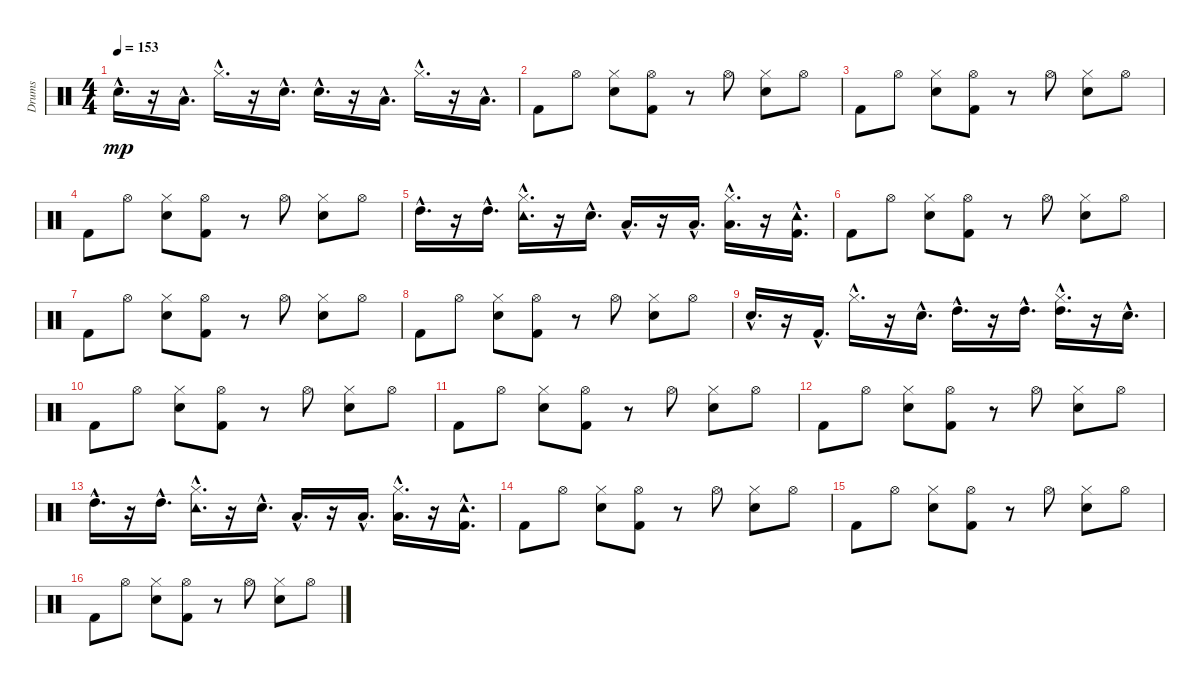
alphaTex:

\track ("Drums" "Drums") {instrument percussion}
\staff {score}
\articulation defaults
\ts (4 4)
\tempo 153
\clef neutral
\ks c "Snare (hit) 2"{hac}.16{d dy mp}
r.16 "Low Floor Tom (hit)"{hac}.16{d} "Hi-Hat (closed)"{hac}.16{d} r.16 "Snare (hit) 2"{hac}.16{d} "Snare (hit) 2"{hac}.16{d} r.16 "Low Floor Tom (hit)"{hac}.16{d} "Hi-Hat (closed)"{hac}.16{d} r.16 "Low Floor Tom (hit)"{hac}.16{d} |
"Kick (hit) 2".8 "Hi-Hat (open)".8 ("Snare (hit) 2" "Hi-Hat (closed)").8 ("Kick (hit) 2" "Hi-Hat (open)").8 r.8 "Hi-Hat (open)".8 ("Snare (hit) 2" "Hi-Hat (closed)").8 "Hi-Hat (open)".8 |
"Kick (hit) 2".8 "Hi-Hat (open)".8 ("Snare (hit) 2" "Hi-Hat (closed)").8 ("Kick (hit) 2" "Hi-Hat (open)").8 r.8 "Hi-Hat (open)".8 ("Snare (hit) 2" "Hi-Hat (closed)").8 "Hi-Hat (open)".8 |
"Kick (hit) 2".8 "Hi-Hat (open)".8 ("Snare (hit) 2" "Hi-Hat (closed)").8 ("Kick (hit) 2" "Hi-Hat (open)").8 r.8 "Hi-Hat (open)".8 ("Snare (hit) 2" "Hi-Hat (closed)").8 "Hi-Hat (open)".8 |
"High Tom (hit)"{hac}.16{d} r.16 "High Tom (hit)"{hac}.16{d} ("Hi-Hat (closed)"{hac} "Tambourine (hit)"{hac}).16{d} r.16 "Snare (hit) 2"{hac}.16{d} "Low Floor Tom (hit)"{hac}.16{d} r.16 "Low Floor Tom (hit)"{hac}.16{d} ("Low Floor Tom (hit)"{hac} "Hi-Hat (closed)"{hac}).16{d} r.16 ("Kick (hit) 2"{hac} "Tambourine (hit)"{hac}).16{d} |
"Kick (hit) 2".8 "Hi-Hat (open)".8 ("Snare (hit) 2" "Hi-Hat (closed)").8 ("Kick (hit) 2" "Hi-Hat (open)").8 r.8 "Hi-Hat (open)".8 ("Snare (hit) 2" "Hi-Hat (closed)").8 "Hi-Hat (open)".8 |
"Kick (hit) 2".8 "Hi-Hat (open)".8 ("Snare (hit) 2" "Hi-Hat (closed)").8 ("Kick (hit) 2" "Hi-Hat (open)").8 r.8 "Hi-Hat (open)".8 ("Snare (hit) 2" "Hi-Hat (closed)").8 "Hi-Hat (open)".8 |
"Kick (hit) 2".8 "Hi-Hat (open)".8 ("Snare (hit) 2" "Hi-Hat (closed)").8 ("Kick (hit) 2" "Hi-Hat (open)").8 r.8 "Hi-Hat (open)".8 ("Snare (hit) 2" "Hi-Hat (closed)").8 "Hi-Hat (open)".8 |
"Snare (hit) 2"{hac}.16{d} r.16 "Kick (hit) 2"{hac}.16{d} "Hi-Hat (closed)"{hac}.16{d} r.16 "Snare (hit) 2"{hac}.16{d} "High Tom (hit)"{hac}.16{d} r.16 "High Tom (hit)"{hac}.16{d} ("Hi-Hat (closed)"{hac} "High Tom (hit)"{hac}).16{d} r.16 "Snare (hit) 2"{hac}.16{d} |
"Kick (hit) 2".8 "Hi-Hat (open)".8 ("Snare (hit) 2" "Hi-Hat (closed)").8 ("Kick (hit) 2" "Hi-Hat (open)").8 r.8 "Hi-Hat (open)".8 ("Snare (hit) 2" "Hi-Hat (closed)").8 "Hi-Hat (open)".8 |
"Kick (hit) 2".8 "Hi-Hat (open)".8 ("Snare (hit) 2" "Hi-Hat (closed)").8 ("Kick (hit) 2" "Hi-Hat (open)").8 r.8 "Hi-Hat (open)".8 ("Snare (hit) 2" "Hi-Hat (closed)").8 "Hi-Hat (open)".8 |
"Kick (hit) 2".8 "Hi-Hat (open)".8 ("Snare (hit) 2" "Hi-Hat (closed)").8 ("Kick (hit) 2" "Hi-Hat (open)").8 r.8 "Hi-Hat (open)".8 ("Snare (hit) 2" "Hi-Hat (closed)").8 "Hi-Hat (open)".8 |
"High Tom (hit)"{hac}.16{d} r.16 "High Tom (hit)"{hac}.16{d} ("Hi-Hat (closed)"{hac} "Tambourine (hit)"{hac}).16{d} r.16 "Snare (hit) 2"{hac}.16{d} "Low Floor Tom (hit)"{hac}.16{d} r.16 "Low Floor Tom (hit)"{hac}.16{d} ("Low Floor Tom (hit)"{hac} "Hi-Hat (closed)"{hac}).16{d} r.16 ("Kick (hit) 2"{hac} "Tambourine (hit)"{hac}).16{d} |
"Kick (hit) 2".8 "Hi-Hat (open)".8 ("Snare (hit) 2" "Hi-Hat (closed)").8 ("Kick (hit) 2" "Hi-Hat (open)").8 r.8 "Hi-Hat (open)".8 ("Snare (hit) 2" "Hi-Hat (closed)").8 "Hi-Hat (open)".8 |
"Kick (hit) 2".8 "Hi-Hat (open)".8 ("Snare (hit) 2" "Hi-Hat (closed)").8 ("Kick (hit) 2" "Hi-Hat (open)").8 r.8 "Hi-Hat (open)".8 ("Snare (hit) 2" "Hi-Hat (closed)").8 "Hi-Hat (open)".8 |
"Kick (hit) 2".8 "Hi-Hat (open)".8 ("Snare (hit) 2" "Hi-Hat (closed)").8 ("Kick (hit) 2" "Hi-Hat (open)").8 r.8 "Hi-Hat (open)".8 ("Snare (hit) 2" "Hi-Hat (closed)").8 "Hi-Hat (open)".8
